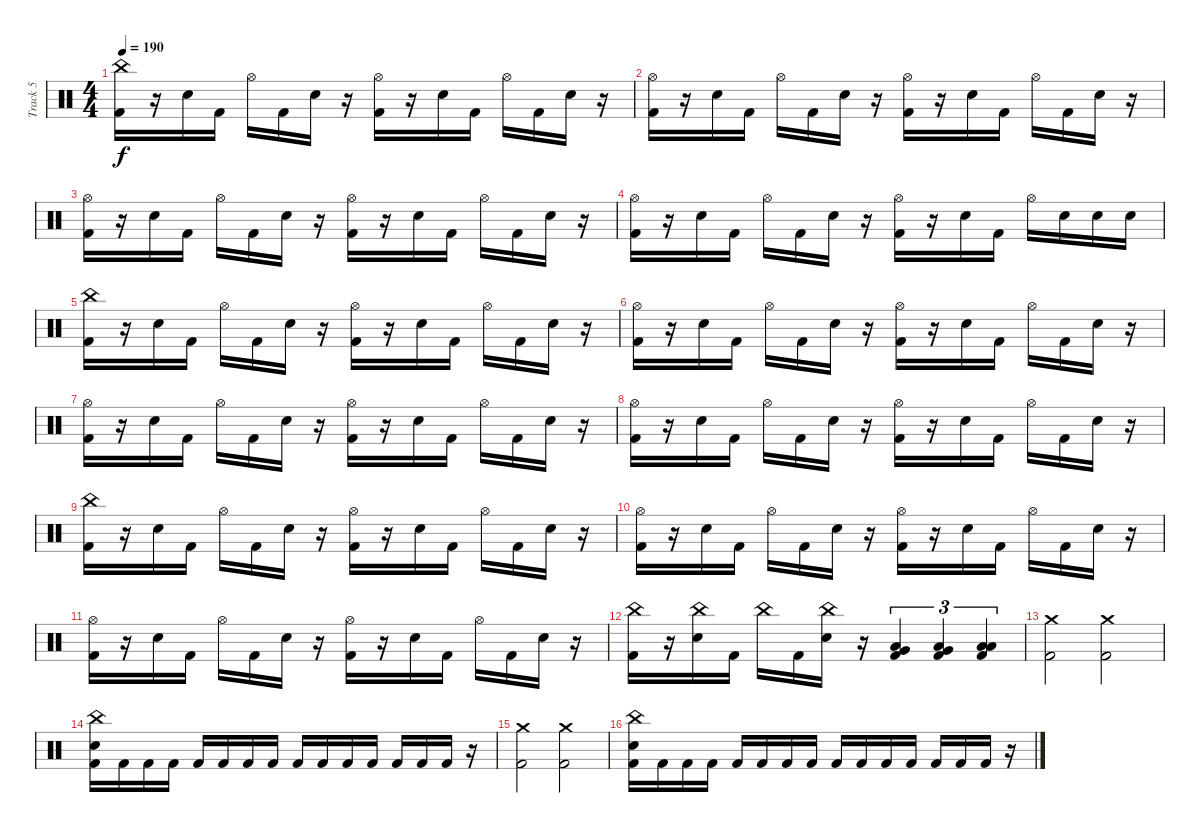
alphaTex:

\track ("Track 5" "Track 5") {instrument percussion}
\staff {score}
\articulation defaults
\ts (4 4)
\tempo 190
\clef neutral
\ks c
("China (hit)" "Kick (hit) 2").16{dy f} r.16 "Electric Snare (hit)".16 "Kick (hit) 2".16 "Hi-Hat (open)".16 "Kick (hit) 2".16 "Electric Snare (hit)".16 r.16 ("Hi-Hat (open)" "Kick (hit) 2").16 r.16 "Electric Snare (hit)".16 "Kick (hit) 2".16 "Hi-Hat (open)".16 "Kick (hit) 2".16 "Electric Snare (hit)".16 r.16 |
("Hi-Hat (open)" "Kick (hit) 2").16 r.16 "Electric Snare (hit)".16 "Kick (hit) 2".16 "Hi-Hat (open)".16 "Kick (hit) 2".16 "Electric Snare (hit)".16 r.16 ("Hi-Hat (open)" "Kick (hit) 2").16 r.16 "Electric Snare (hit)".16 "Kick (hit) 2".16 "Hi-Hat (open)".16 "Kick (hit) 2".16 "Electric Snare (hit)".16 r.16 |
("Hi-Hat (open)" "Kick (hit) 2").16 r.16 "Electric Snare (hit)".16 "Kick (hit) 2".16 "Hi-Hat (open)".16 "Kick (hit) 2".16 "Electric Snare (hit)".16 r.16 ("Hi-Hat (open)" "Kick (hit) 2").16 r.16 "Electric Snare (hit)".16 "Kick (hit) 2".16 "Hi-Hat (open)".16 "Kick (hit) 2".16 "Electric Snare (hit)".16 r.16 |
("Hi-Hat (open)" "Kick (hit) 2").16 r.16 "Electric Snare (hit)".16 "Kick (hit) 2".16 "Hi-Hat (open)".16 "Kick (hit) 2".16 "Electric Snare (hit)".16 r.16 ("Hi-Hat (open)" "Kick (hit) 2").16 r.16 "Electric Snare (hit)".16 "Kick (hit) 2".16 "Hi-Hat (open)".16 "Electric Snare (hit)".16 "Electric Snare (hit)".16 "Electric Snare (hit)".16 |
("China (hit)" "Kick (hit) 2").16 r.16 "Electric Snare (hit)".16 "Kick (hit) 2".16 "Hi-Hat (open)".16 "Kick (hit) 2".16 "Electric Snare (hit)".16 r.16 ("Hi-Hat (open)" "Kick (hit) 2").16 r.16 "Electric Snare (hit)".16 "Kick (hit) 2".16 "Hi-Hat (open)".16 "Kick (hit) 2".16 "Electric Snare (hit)".16 r.16 |
("Hi-Hat (open)" "Kick (hit) 2").16 r.16 "Electric Snare (hit)".16 "Kick (hit) 2".16 "Hi-Hat (open)".16 "Kick (hit) 2".16 "Electric Snare (hit)".16 r.16 ("Hi-Hat (open)" "Kick (hit) 2").16 r.16 "Electric Snare (hit)".16 "Kick (hit) 2".16 "Hi-Hat (open)".16 "Kick (hit) 2".16 "Electric Snare (hit)".16 r.16 |
("Hi-Hat (open)" "Kick (hit) 2").16 r.16 "Electric Snare (hit)".16 "Kick (hit) 2".16 "Hi-Hat (open)".16 "Kick (hit) 2".16 "Electric Snare (hit)".16 r.16 ("Hi-Hat (open)" "Kick (hit) 2").16 r.16 "Electric Snare (hit)".16 "Kick (hit) 2".16 "Hi-Hat (open)".16 "Kick (hit) 2".16 "Electric Snare (hit)".16 r.16 |
("Hi-Hat (open)" "Kick (hit) 2").16 r.16 "Electric Snare (hit)".16 "Kick (hit) 2".16 "Hi-Hat (open)".16 "Kick (hit) 2".16 "Electric Snare (hit)".16 r.16 ("Hi-Hat (open)" "Kick (hit) 2").16 r.16 "Electric Snare (hit)".16 "Kick (hit) 2".16 "Hi-Hat (open)".16 "Kick (hit) 2".16 "Electric Snare (hit)".16 r.16 |
("China (hit)" "Kick (hit) 2").16 r.16 "Electric Snare (hit)".16 "Kick (hit) 2".16 "Hi-Hat (open)".16 "Kick (hit) 2".16 "Electric Snare (hit)".16 r.16 ("Hi-Hat (open)" "Kick (hit) 2").16 r.16 "Electric Snare (hit)".16 "Kick (hit) 2".16 "Hi-Hat (open)".16 "Kick (hit) 2".16 "Electric Snare (hit)".16 r.16 |
("Hi-Hat (open)" "Kick (hit) 2").16 r.16 "Electric Snare (hit)".16 "Kick (hit) 2".16 "Hi-Hat (open)".16 "Kick (hit) 2".16 "Electric Snare (hit)".16 r.16 ("Hi-Hat (open)" "Kick (hit) 2").16 r.16 "Electric Snare (hit)".16 "Kick (hit) 2".16 "Hi-Hat (open)".16 "Kick (hit) 2".16 "Electric Snare (hit)".16 r.16 |
("Hi-Hat (open)" "Kick (hit) 2").16 r.16 "Electric Snare (hit)".16 "Kick (hit) 2".16 "Hi-Hat (open)".16 "Kick (hit) 2".16 "Electric Snare (hit)".16 r.16 ("Hi-Hat (open)" "Kick (hit) 2").16 r.16 "Electric Snare (hit)".16 "Kick (hit) 2".16 "Hi-Hat (open)".16 "Kick (hit) 2".16 "Electric Snare (hit)".16 r.16 |
("China (hit)" "Kick (hit) 2").16 r.16 ("China (hit)" "Electric Snare (hit)").16 "Kick (hit) 2".16 "China (hit)".16 "Kick (hit) 2".16 ("China (hit)" "Electric Snare (hit)").16 r.16 ("Low Tom (hit)" "Very Low Tom (hit)" "Kick (hit) 2").4{tu (3 2)} ("Very Low Tom (hit)" "Low Floor Tom (hit)" "Kick (hit) 2").4{tu (3 2)} ("Low Floor Tom (hit)" "Low Floor Tom (hit)" "Kick (hit) 2").4{tu (3 2)} |
("Crash medium (hit)" "Kick (hit) 2").2 ("Crash medium (hit)" "Kick (hit) 2").2 |
("China (hit)" "Electric Snare (hit)" "Kick (hit) 2").16 "Kick (hit) 2".16 "Kick (hit) 2".16 "Kick (hit) 2".16 "Kick (hit) 2".16 "Kick (hit) 2".16 "Kick (hit) 2".16 "Kick (hit) 2".16 "Kick (hit) 2".16 "Kick (hit) 2".16 "Kick (hit) 2".16 "Kick (hit) 2".16 "Kick (hit) 2".16 "Kick (hit) 2".16 "Kick (hit) 2".16 r.16 |
("Crash medium (hit)" "Kick (hit) 2").2 ("Crash medium (hit)" "Kick (hit) 2").2 |
("China (hit)" "Electric Snare (hit)" "Kick (hit) 2").16 "Kick (hit) 2".16 "Kick (hit) 2".16 "Kick (hit) 2".16 "Kick (hit) 2".16 "Kick (hit) 2".16 "Kick (hit) 2".16 "Kick (hit) 2".16 "Kick (hit) 2".16 "Kick (hit) 2".16 "Kick (hit) 2".16 "Kick (hit) 2".16 "Kick (hit) 2".16 "Kick (hit) 2".16 "Kick (hit) 2".16 r.16
